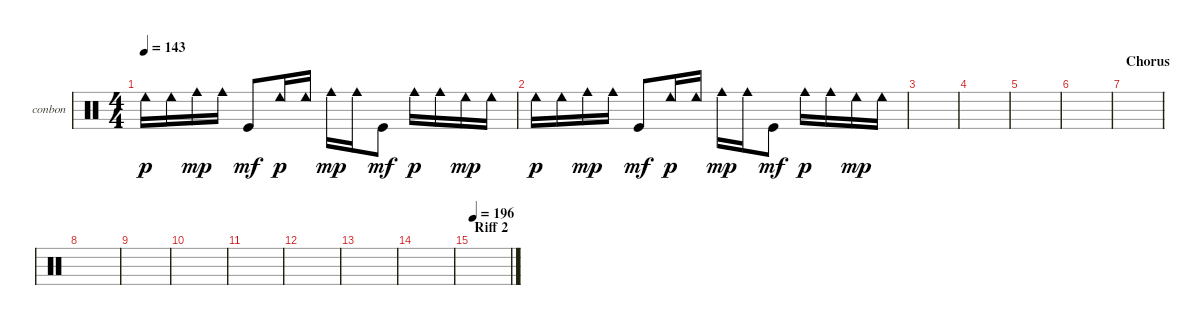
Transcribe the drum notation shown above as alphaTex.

\defaultSystemsLayout 4
\bracketExtendMode groupsimilarinstruments
\firstSystemTrackNameOrientation horizontal
\otherSystemsTrackNameOrientation horizontal
\track ("Nao - Bongos" "conbon") {instrument percussion}
\staff {score}
\articulation defaults
\ts (4 4)
\tempo 143
\clef neutral
\scale
0.333333
\ks c "Cowbell low (hit)".16{dy p} "Cowbell low (hit)".16 "Cowbell medium (hit)".16{dy mp} "Cowbell medium (hit)".16 "Kick (hit)".8{dy mf} "Cowbell low (hit)".16{dy p} "Cowbell low (hit)".16 "Cowbell medium (hit)".16{dy mp} "Cowbell medium (hit)".16 "Kick (hit)".8{dy mf} "Cowbell medium (hit)".16{dy p} "Cowbell medium (hit)".16 "Cowbell low (hit)".16{dy mp} "Cowbell low (hit)".16
|
\scale
0.333333 "Cowbell low (hit)".16{dy p} "Cowbell low (hit)".16 "Cowbell medium (hit)".16{dy mp} "Cowbell medium (hit)".16 "Kick (hit)".8{dy mf} "Cowbell low (hit)".16{dy p} "Cowbell low (hit)".16 "Cowbell medium (hit)".16{dy mp} "Cowbell medium (hit)".16 "Kick (hit)".8{dy mf} "Cowbell medium (hit)".16{dy p} "Cowbell medium (hit)".16 "Cowbell low (hit)".16{dy mp} "Cowbell low (hit)".16 |
\scale
0.333333 |
\scale
0.333333 |
\scale
0.333333 |
\scale
0.333333 |
\section ("" "Chorus")
\scale
0.333333 |
\scale
0.333333 |
\scale
0.333333 |
\scale
0.333333 |
\scale
0.333333 |
\scale
0.333333 |
\scale
0.333333 |
|
\section ("" "Riff 2")
\tempo 196
